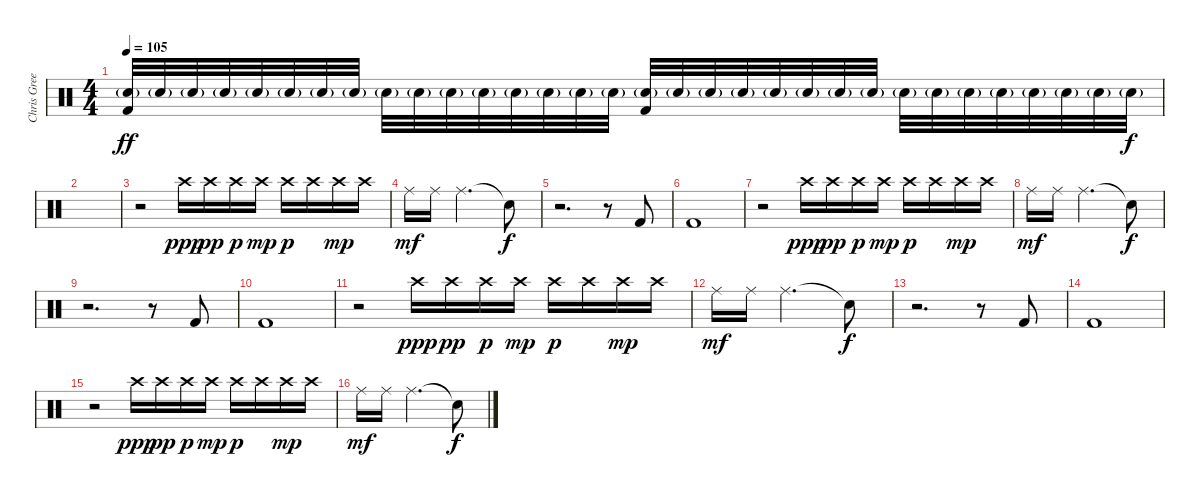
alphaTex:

\track ("Chris Greene" "Chris Gree") {instrument percussion}
\staff {score}
\articulation defaults
\ts (4 4)
\tempo 105
\clef neutral
\ks c
("Electric Snare (hit)"{g} "Kick (hit) 2").32{dy ff} "Electric Snare (hit)"{g}.32 "Electric Snare (hit)"{g}.32 "Electric Snare (hit)"{g}.32 "Electric Snare (hit)"{g}.32 "Electric Snare (hit)"{g}.32 "Electric Snare (hit)"{g}.32 "Electric Snare (hit)"{g}.32 "Electric Snare (hit)"{g}.32 "Electric Snare (hit)"{g}.32 "Electric Snare (hit)"{g}.32 "Electric Snare (hit)"{g}.32 "Electric Snare (hit)"{g}.32 "Electric Snare (hit)"{g}.32 "Electric Snare (hit)"{g}.32 "Electric Snare (hit)"{g}.32 ("Electric Snare (hit)"{g} "Kick (hit) 2").32 "Electric Snare (hit)"{g}.32 "Electric Snare (hit)"{g}.32 "Electric Snare (hit)"{g}.32 "Electric Snare (hit)"{g}.32 "Electric Snare (hit)"{g}.32 "Electric Snare (hit)"{g}.32 "Electric Snare (hit)"{g}.32 "Electric Snare (hit)"{g}.32 "Electric Snare (hit)"{g}.32 "Electric Snare (hit)"{g}.32 "Electric Snare (hit)"{g}.32 "Electric Snare (hit)"{g}.32 "Electric Snare (hit)"{g}.32 "Electric Snare (hit)"{g}.32 "Electric Snare (hit)"{g}.32{dy f} |
|
r.2 "Crash high (hit)".16{dy ppp} "Crash high (hit)".16{dy pp} "Crash high (hit)".16{dy p} "Crash high (hit)".16{dy mp} "Crash high (hit)".16{dy p} "Crash high (hit)".16 "Crash high (hit)".16{dy mp} "Crash high (hit)".16 |
"Ride (middle)".16{dy mf} "Ride (middle)".16 "Ride (middle)".2{d} "Snare (hit)"{t}.8{dy f} |
r.2{d} r.8 "Kick (hit) 2".8 |
"Kick (hit) 2".1 |
r.2 "Crash high (hit)".16{dy ppp} "Crash high (hit)".16{dy pp} "Crash high (hit)".16{dy p} "Crash high (hit)".16{dy mp} "Crash high (hit)".16{dy p} "Crash high (hit)".16 "Crash high (hit)".16{dy mp} "Crash high (hit)".16 |
"Ride (middle)".16{dy mf} "Ride (middle)".16 "Ride (middle)".2{d} "Snare (hit)"{t}.8{dy f} |
r.2{d} r.8 "Kick (hit) 2".8 |
"Kick (hit) 2".1 |
r.2 "Crash high (hit)".16{dy ppp} "Crash high (hit)".16{dy pp} "Crash high (hit)".16{dy p} "Crash high (hit)".16{dy mp} "Crash high (hit)".16{dy p} "Crash high (hit)".16 "Crash high (hit)".16{dy mp} "Crash high (hit)".16 |
"Ride (middle)".16{dy mf} "Ride (middle)".16 "Ride (middle)".2{d} "Snare (hit)"{t}.8{dy f} |
r.2{d} r.8 "Kick (hit) 2".8 |
"Kick (hit) 2".1 |
r.2 "Crash high (hit)".16{dy ppp} "Crash high (hit)".16{dy pp} "Crash high (hit)".16{dy p} "Crash high (hit)".16{dy mp} "Crash high (hit)".16{dy p} "Crash high (hit)".16 "Crash high (hit)".16{dy mp} "Crash high (hit)".16 |
"Ride (middle)".16{dy mf} "Ride (middle)".16 "Ride (middle)".2{d} "Snare (hit)"{t}.8{dy f}
